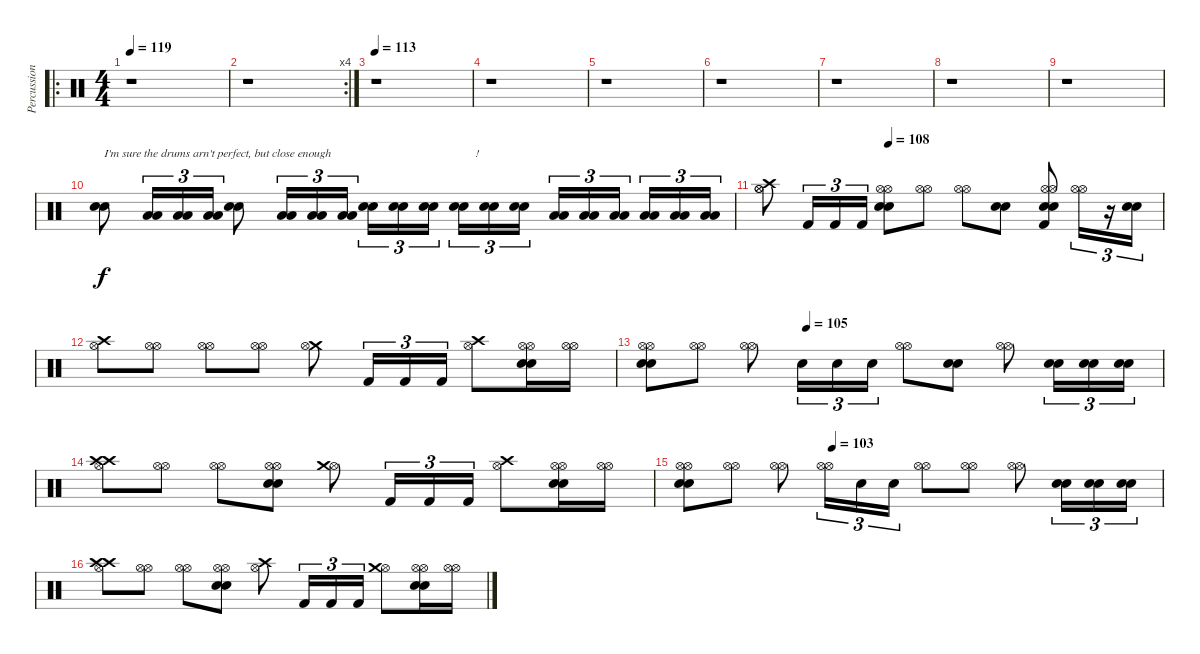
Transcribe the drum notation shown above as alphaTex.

\track ("Percussion" "Percussion") {instrument percussion}
\staff {score}
\articulation defaults
\ro
\ts (4 4)
\tempo 119
\clef neutral
\ks c
r.1{dy fff} |
\rc 4
r.1 |
\tempo 113
r.1 |
r.1 |
r.1 |
r.1 |
r.1 |
r.1 |
r.1 |
("Electric Snare (hit)" "Electric Snare (hit)").8{txt "I'm sure the drums arn't perfect, but close enough" dy f} ("Low Tom (hit)" "Low Tom (hit)").16{tu (3 2)} ("Low Tom (hit)" "Low Tom (hit)").16{tu (3 2)} ("Low Tom (hit)" "Low Tom (hit)").16{tu (3 2)} ("Electric Snare (hit)" "Electric Snare (hit)").8 ("Low Tom (hit)" "Low Tom (hit)").16{tu (3 2)} ("Low Tom (hit)" "Low Tom (hit)").16{tu (3 2)} ("Low Tom (hit)" "Low Tom (hit)").16{tu (3 2)} ("Electric Snare (hit)" "Electric Snare (hit)").16{tu (3 2)} ("Electric Snare (hit)" "Electric Snare (hit)").16{tu (3 2)} ("Electric Snare (hit)" "Electric Snare (hit)").16{tu (3 2)} ("Electric Snare (hit)" "Electric Snare (hit)").16{tu (3 2) txt "    !"} ("Electric Snare (hit)" "Electric Snare (hit)").16{tu (3 2)} ("Electric Snare (hit)" "Electric Snare (hit)").16{tu (3 2)} ("Low Tom (hit)" "Low Tom (hit)").16{tu (3 2)} ("Low Tom (hit)" "Low Tom (hit)").16{tu (3 2)} ("Low Tom (hit)" "Low Tom (hit)").16{tu (3 2)} ("Low Tom (hit)" "Low Tom (hit)").16{tu (3 2)} ("Low Tom (hit)" "Low Tom (hit)").16{tu (3 2)} ("Low Tom (hit)" "Low Tom (hit)").16{tu (3 2)} |
\tempo (108 0.3125)
("Hi-Hat (open)" "Hi-Hat (open)" "Crash high (hit)").8 "Kick (hit) 2".16{tu (3 2)} "Kick (hit) 2".16{tu (3 2)} "Kick (hit) 2".16{tu (3 2)} ("Electric Snare (hit)" "Electric Snare (hit)" "Hi-Hat (open)" "Hi-Hat (open)").8 ("Hi-Hat (open)" "Hi-Hat (open)").8 ("Hi-Hat (open)" "Hi-Hat (open)").8 ("Electric Snare (hit)" "Electric Snare (hit)").8 ("Electric Snare (hit)" "Electric Snare (hit)" "Hi-Hat (open)" "Hi-Hat (open)" "Kick (hit) 2").8 ("Hi-Hat (open)" "Hi-Hat (open)").16{tu (3 2)} r.16{tu (3 2)} ("Electric Snare (hit)" "Electric Snare (hit)").16{tu (3 2)} |
("Hi-Hat (open)" "Crash high (hit)").8 ("Hi-Hat (open)" "Hi-Hat (open)").8 ("Hi-Hat (open)" "Hi-Hat (open)").8 ("Hi-Hat (open)" "Hi-Hat (open)").8 ("Crash medium (hit)" "Hi-Hat (open)").8 "Kick (hit) 2".16{tu (3 2)} "Kick (hit) 2".16{tu (3 2)} "Kick (hit) 2".16{tu (3 2)} ("Hi-Hat (open)" "Crash high (hit)").8 ("Electric Snare (hit)" "Electric Snare (hit)" "Hi-Hat (open)" "Hi-Hat (open)").16 ("Hi-Hat (open)" "Hi-Hat (open)").16 |
\tempo (105 0.3125)
("Electric Snare (hit)" "Electric Snare (hit)" "Hi-Hat (open)" "Hi-Hat (open)").8 ("Hi-Hat (open)" "Hi-Hat (open)").8 ("Hi-Hat (open)" "Hi-Hat (open)").8 "Electric Snare (hit)".16{tu (3 2)} "Electric Snare (hit)".16{tu (3 2)} "Electric Snare (hit)".16{tu (3 2)} ("Hi-Hat (open)" "Hi-Hat (open)").8 ("Electric Snare (hit)" "Electric Snare (hit)").8 ("Hi-Hat (open)" "Hi-Hat (open)").8 ("Electric Snare (hit)" "Electric Snare (hit)").16{tu (3 2)} ("Electric Snare (hit)" "Electric Snare (hit)").16{tu (3 2)} ("Electric Snare (hit)" "Electric Snare (hit)").16{tu (3 2)} |
("Hi-Hat (open)" "Crash high (hit)" "Crash high (hit)").8 ("Hi-Hat (open)" "Hi-Hat (open)").8 ("Hi-Hat (open)" "Hi-Hat (open)").8 ("Electric Snare (hit)" "Electric Snare (hit)" "Hi-Hat (open)" "Hi-Hat (open)").8 ("Hi-Hat (open)" "Crash medium (hit)").8 "Kick (hit) 2".16{tu (3 2)} "Kick (hit) 2".16{tu (3 2)} "Kick (hit) 2".16{tu (3 2)} ("Hi-Hat (open)" "Crash high (hit)").8 ("Electric Snare (hit)" "Electric Snare (hit)" "Hi-Hat (open)" "Hi-Hat (open)").16 ("Hi-Hat (open)" "Hi-Hat (open)").16 |
\tempo (103 0.3125)
("Electric Snare (hit)" "Electric Snare (hit)" "Hi-Hat (open)" "Hi-Hat (open)").8 ("Hi-Hat (open)" "Hi-Hat (open)").8 ("Hi-Hat (open)" "Hi-Hat (open)").8 ("Hi-Hat (open)" "Hi-Hat (open)").16{tu (3 2)} "Electric Snare (hit)".16{tu (3 2)} "Electric Snare (hit)".16{tu (3 2)} ("Hi-Hat (open)" "Hi-Hat (open)").8 ("Hi-Hat (open)" "Hi-Hat (open)").8 ("Hi-Hat (open)" "Hi-Hat (open)").8 ("Electric Snare (hit)" "Electric Snare (hit)").16{tu (3 2)} ("Electric Snare (hit)" "Electric Snare (hit)").16{tu (3 2)} ("Electric Snare (hit)" "Electric Snare (hit)").16{tu (3 2)} |
("Hi-Hat (open)" "Crash high (hit)" "Crash high (hit)").8 ("Hi-Hat (open)" "Hi-Hat (open)").8 ("Hi-Hat (open)" "Hi-Hat (open)").8 ("Electric Snare (hit)" "Electric Snare (hit)" "Hi-Hat (open)" "Hi-Hat (open)").8 ("Hi-Hat (open)" "Crash high (hit)").8 "Kick (hit) 2".16{tu (3 2)} "Kick (hit) 2".16{tu (3 2)} "Kick (hit) 2".16{tu (3 2)} ("Hi-Hat (open)" "Crash medium (hit)").8 ("Electric Snare (hit)" "Electric Snare (hit)" "Hi-Hat (open)" "Hi-Hat (open)").16 ("Hi-Hat (open)" "Hi-Hat (open)").16
